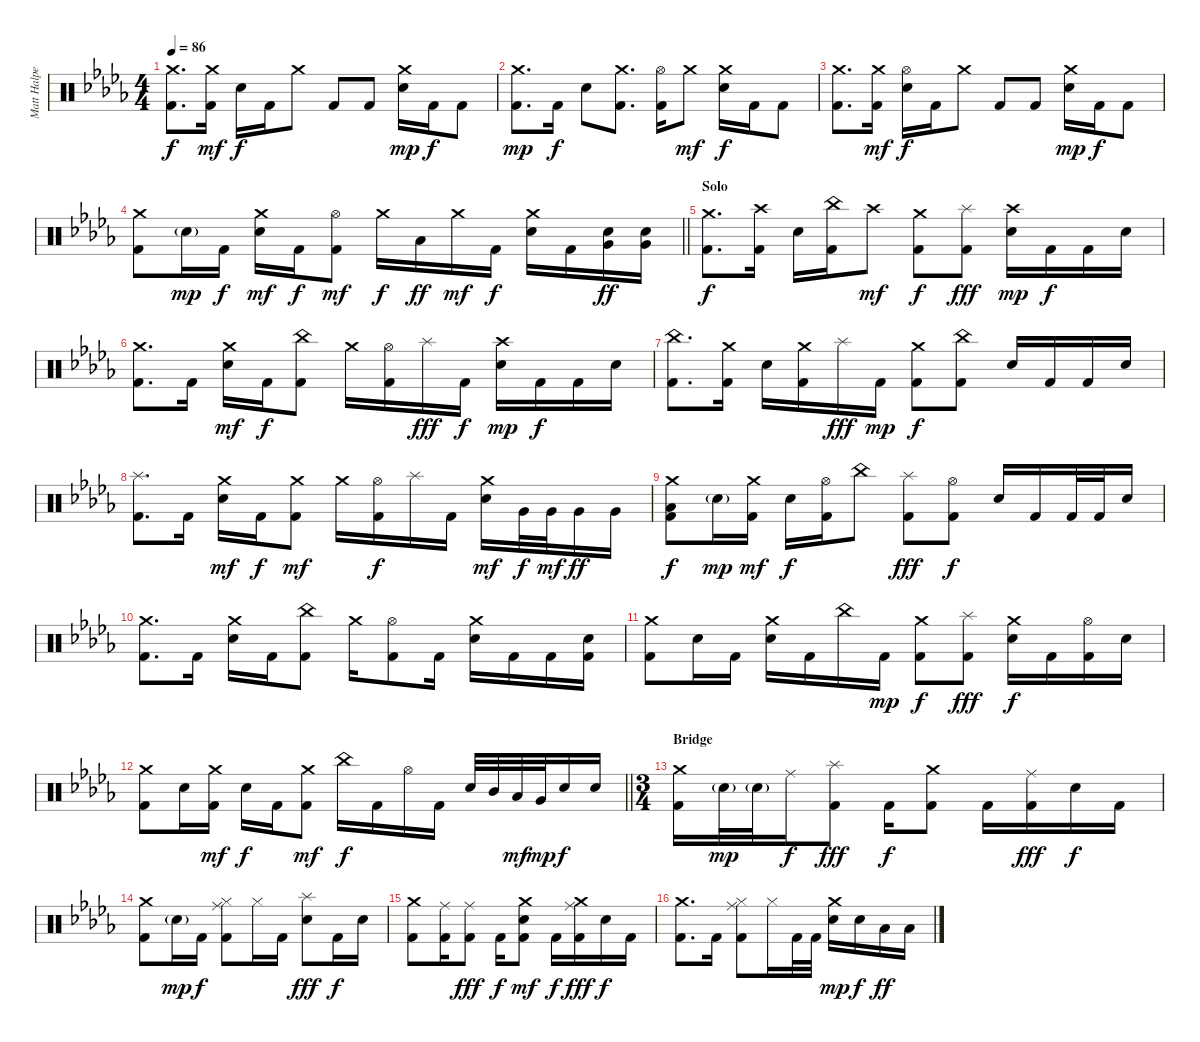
\track ("Matt Halpern - Drums" "Matt Halpe") {instrument percussion}
\staff {score}
\articulation defaults
\ts (4 4)
\tempo 86
\clef neutral
\ks bbminor
("Crash medium (hit)" "Kick (hit) 2").8{d dy f} ("Crash medium (hit)" "Kick (hit) 2").16{dy mf} "Snare (hit) 2".16{dy f} "Kick (hit) 2".16 "Crash medium (hit)".8 "Kick (hit) 2".8 "Kick (hit) 2".8 ("Crash medium (hit)" "Snare (hit) 2").16{dy mp} "Kick (hit) 2".16{dy f} "Kick (hit) 2".8 |
("Crash medium (hit)" "Kick (hit) 2").8{d dy mp} "Kick (hit) 2".16{dy f} "Snare (hit) 2".8 ("Crash medium (hit)" "Kick (hit) 2").8{d} ("Hi-Hat (open)" "Kick (hit) 2").16 "Crash medium (hit)".8{dy mf} ("Crash medium (hit)" "Snare (hit) 2").16{dy f} "Kick (hit) 2".16 "Kick (hit) 2".8 |
("Crash medium (hit)" "Kick (hit) 2").8{d} ("Crash medium (hit)" "Kick (hit) 2").16{dy mf} ("Hi-Hat (open)" "Snare (hit) 2").16{dy f} "Kick (hit) 2".16 "Crash medium (hit)".8 "Kick (hit) 2".8 "Kick (hit) 2".8 ("Crash medium (hit)" "Snare (hit) 2").16{dy mp} "Kick (hit) 2".16{dy f} "Kick (hit) 2".8 |
\barLineRight lightlight
("Crash medium (hit)" "Kick (hit) 2").8 "Snare (hit) 2"{g}.16{dy mp} "Kick (hit) 2".16{dy f} ("Crash medium (hit)" "Snare (hit) 2").16{dy mf} "Kick (hit) 2".16{dy f} ("Hi-Hat (open)" "Kick (hit) 2").8{dy mf} "Crash medium (hit)".16{dy f} "Low Floor Tom (hit)".16{dy ff} "Crash medium (hit)".16{dy mf} "Kick (hit) 2".16{dy f} ("Crash medium (hit)" "Snare (hit) 2").16 "Kick (hit) 2".16 ("Snare (hit) 2" "Very Low Tom (hit)").16{dy ff} ("Snare (hit) 2" "Very Low Tom (hit)").16 |
\section ("" "Solo")
("Crash medium (hit)" "Kick (hit) 2").8{d dy f} ("Crash high (hit)" "Kick (hit) 2").16 "Snare (hit) 2".16 ("China (hit)" "Kick (hit) 2").16 "Crash high (hit)".8{dy mf} ("Crash medium (hit)" "Kick (hit) 2").8{dy f} ("Splash (hit)" "Kick (hit) 2").8{dy fff} ("Crash high (hit)" "Snare (hit) 2").16{dy mp} "Kick (hit) 2".16{dy f} "Kick (hit) 2".16 "Snare (hit) 2".16 |
("Crash medium (hit)" "Kick (hit) 2").8{d} "Kick (hit) 2".16 ("Crash medium (hit)" "Snare (hit) 2").16{dy mf} "Kick (hit) 2".16{dy f} ("China (hit)" "Kick (hit) 2").8 "Crash medium (hit)".16 ("Hi-Hat (open)" "Kick (hit) 2").16 "Splash (hit)".16{dy fff} "Kick (hit) 2".16{dy f} ("Crash high (hit)" "Snare (hit) 2").16{dy mp} "Kick (hit) 2".16{dy f} "Kick (hit) 2".16 "Snare (hit) 2".16 |
("China (hit)" "Kick (hit) 2").8{d} ("Crash medium (hit)" "Kick (hit) 2").16 "Snare (hit) 2".16 ("Crash medium (hit)" "Kick (hit) 2").16 "Splash (hit)".16{dy fff} "Kick (hit) 2".16{dy mp} ("Crash medium (hit)" "Kick (hit) 2").8{dy f} ("China (hit)" "Kick (hit) 2").8 "Snare (hit) 2".16 "Kick (hit) 2".16 "Kick (hit) 2".16 "Snare (hit) 2".16 |
("Splash (hit)" "Kick (hit) 2").8{d} "Kick (hit) 2".16 ("Crash medium (hit)" "Snare (hit) 2").16{dy mf} "Kick (hit) 2".16{dy f} ("Crash medium (hit)" "Kick (hit) 2").8{dy mf} "Crash medium (hit)".16 ("Hi-Hat (open)" "Kick (hit) 2").16{dy f} "Splash (hit)".16 "Kick (hit) 2".16 ("Crash medium (hit)" "Snare (hit) 2").16{dy mf} "Very Low Tom (hit)".32{dy f} "Very Low Tom (hit)".32{dy mf} "Very Low Tom (hit)".16{dy ff} "Very Low Tom (hit)".16 |
("Crash medium (hit)" "Low Floor Tom (hit)" "Kick (hit) 2").8{dy f} "Snare (hit) 2"{g}.16{dy mp} ("Crash medium (hit)" "Kick (hit) 2").16{dy mf} "Snare (hit) 2".16{dy f} ("Hi-Hat (open)" "Kick (hit) 2").16 "China (hit)".8 ("Splash (hit)" "Kick (hit) 2").8{dy fff} ("Hi-Hat (open)" "Kick (hit) 2").8{dy f} "Snare (hit) 2".16 "Kick (hit) 2".16 "Kick (hit) 2".32 "Kick (hit) 2".32 "Snare (hit) 2".16 |
("Crash medium (hit)" "Kick (hit) 2").8{d} "Kick (hit) 2".16 ("Crash medium (hit)" "Snare (hit) 2").16 "Kick (hit) 2".16 ("China (hit)" "Kick (hit) 2").8 "Crash medium (hit)".16 ("Hi-Hat (open)" "Kick (hit) 2").8 "Kick (hit) 2".16 ("Crash medium (hit)" "Snare (hit) 2").16 "Kick (hit) 2".16 "Kick (hit) 2".16 ("Snare (hit) 2" "Kick (hit) 2").16 |
("Crash medium (hit)" "Kick (hit) 2").8 "Snare (hit) 2".16 "Kick (hit) 2".16 ("Crash medium (hit)" "Snare (hit) 2").16 "Kick (hit) 2".16 "China (hit)".16 "Kick (hit) 2".16{dy mp} ("Crash medium (hit)" "Kick (hit) 2").8{dy f} ("Splash (hit)" "Kick (hit) 2").8{dy fff} ("Crash medium (hit)" "Snare (hit) 2").16{dy f} "Kick (hit) 2".16 ("Hi-Hat (open)" "Kick (hit) 2").16 "Snare (hit) 2".16 |
\barLineRight lightlight
("Crash medium (hit)" "Kick (hit) 2").8 "Snare (hit) 2".16 ("Crash medium (hit)" "Kick (hit) 2").16{dy mf} "Snare (hit) 2".16{dy f} "Kick (hit) 2".16 ("Crash medium (hit)" "Kick (hit) 2").8{dy mf} "China (hit)".16{dy f} "Kick (hit) 2".16 "Hi-Hat (open)".16 "Kick (hit) 2".16 "Snare (hit) 2".32 "Mid Tom (hit)".32 "Low Tom (hit)".32{dy mf} "Very Low Tom (hit)".32{dy mp} "Snare (hit) 2".16{dy f} "Snare (hit) 2".16 |
\ts (3 4)
\section ("" "Bridge")
("Crash medium (hit)" "Kick (hit) 2").16 "Snare (hit) 2"{g}.32{dy mp} "Snare (hit) 2"{g}.32 "Ride (middle)".16{dy f} ("Splash (hit)" "Kick (hit) 2").8{dy fff} "Kick (hit) 2".16{dy f} ("Crash medium (hit)" "Kick (hit) 2").8 "Kick (hit) 2".16 ("Ride (middle)" "Kick (hit) 2").16{dy fff} "Snare (hit) 2".16{dy f} "Kick (hit) 2".16 |
("Crash medium (hit)" "Kick (hit) 2").8 "Snare (hit) 2"{g}.16{dy mp} "Kick (hit) 2".16{dy f} ("Hi-Hat (closed)" "Ride (middle)" "Kick (hit) 2").8 "Hi-Hat (closed)".16 "Kick (hit) 2".16 ("Splash (hit)" "Snare (hit) 2").8{dy fff} "Kick (hit) 2".16{dy f} "Snare (hit) 2".16 |
("Crash medium (hit)" "Kick (hit) 2").8 ("Ride (middle)" "Kick (hit) 2").16 ("Ride (middle)" "Kick (hit) 2").8{dy fff} "Kick (hit) 2".16{dy f} ("Crash medium (hit)" "Snare (hit) 2" "Kick (hit) 2").8{dy mf} "Kick (hit) 2".16{dy f} ("Crash medium (hit)" "Ride (middle)" "Kick (hit) 2").16{dy fff} "Snare (hit) 2".16{dy f} "Kick (hit) 2".16 |
("Crash medium (hit)" "Kick (hit) 2").8{d} "Kick (hit) 2".16 ("Hi-Hat (closed)" "Ride (middle)" "Kick (hit) 2").8 "Hi-Hat (closed)".16 "Kick (hit) 2".32 "Kick (hit) 2".32 ("Crash medium (hit)" "Snare (hit) 2").16{dy mp} "Snare (hit) 2".16{dy f} "Low Tom (hit)".16{dy ff} "Low Floor Tom (hit)".16
